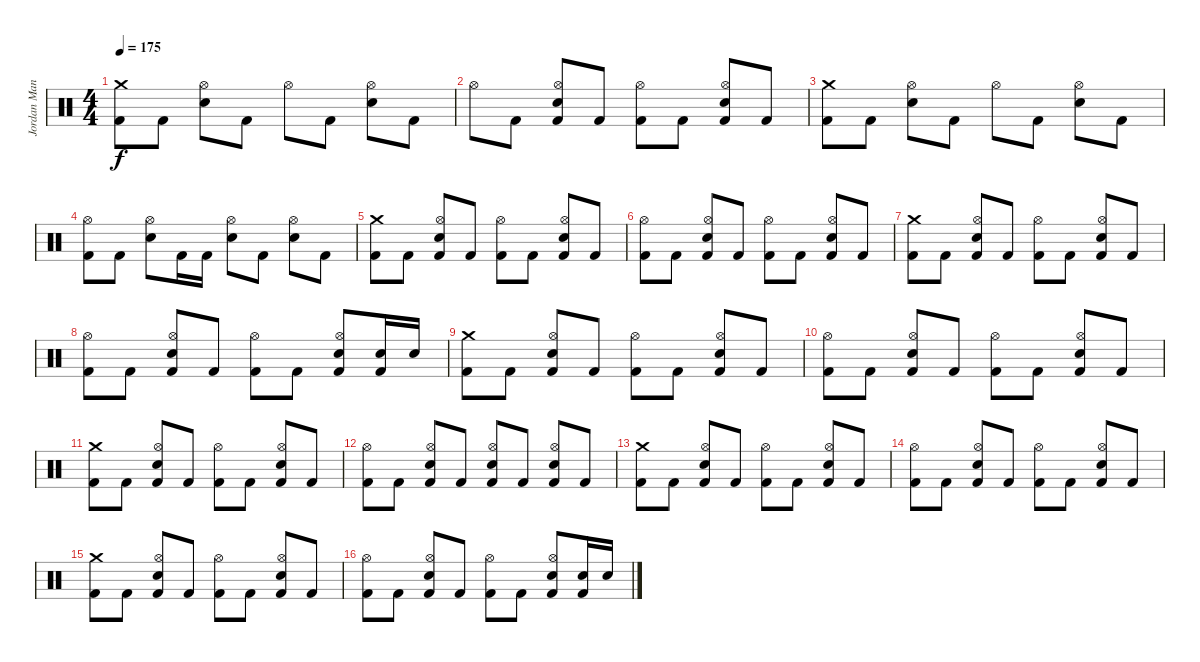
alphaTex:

\track ("Jordan Mancino" "Jordan Man") {instrument percussion}
\staff {score}
\articulation defaults
\ts (4 4)
\tempo 175
\clef neutral
\ks c
("Crash medium (hit)" "Kick (hit) 2").8{dy f} "Kick (hit) 2".8 ("Hi-Hat (open)" "Electric Snare (hit)").8 "Kick (hit) 2".8 "Hi-Hat (open)".8 "Kick (hit) 2".8 ("Hi-Hat (open)" "Electric Snare (hit)").8 "Kick (hit) 2".8 |
"Hi-Hat (open)".8 "Kick (hit) 2".8 ("Hi-Hat (open)" "Electric Snare (hit)" "Kick (hit) 2").8 "Kick (hit) 2".8 ("Hi-Hat (open)" "Kick (hit) 2").8 "Kick (hit) 2".8 ("Hi-Hat (open)" "Electric Snare (hit)" "Kick (hit) 2").8 "Kick (hit) 2".8 |
("Crash medium (hit)" "Kick (hit) 2").8 "Kick (hit) 2".8 ("Hi-Hat (open)" "Electric Snare (hit)").8 "Kick (hit) 2".8 "Hi-Hat (open)".8 "Kick (hit) 2".8 ("Hi-Hat (open)" "Electric Snare (hit)").8 "Kick (hit) 2".8 |
("Hi-Hat (open)" "Kick (hit) 2").8 "Kick (hit) 2".8 ("Hi-Hat (open)" "Electric Snare (hit)").8 "Kick (hit) 2".16 "Kick (hit) 2".16 ("Hi-Hat (open)" "Electric Snare (hit)").8 "Kick (hit) 2".8 ("Hi-Hat (open)" "Electric Snare (hit)").8 "Kick (hit) 2".8 |
("Crash medium (hit)" "Kick (hit) 2").8 "Kick (hit) 2".8 ("Hi-Hat (open)" "Electric Snare (hit)" "Kick (hit) 2").8 "Kick (hit) 2".8 ("Hi-Hat (open)" "Kick (hit) 2").8 "Kick (hit) 2".8 ("Hi-Hat (open)" "Electric Snare (hit)" "Kick (hit) 2").8 "Kick (hit) 2".8 |
("Hi-Hat (open)" "Kick (hit) 2").8 "Kick (hit) 2".8 ("Hi-Hat (open)" "Electric Snare (hit)" "Kick (hit) 2").8 "Kick (hit) 2".8 ("Hi-Hat (open)" "Kick (hit) 2").8 "Kick (hit) 2".8 ("Hi-Hat (open)" "Electric Snare (hit)" "Kick (hit) 2").8 "Kick (hit) 2".8 |
("Crash medium (hit)" "Kick (hit) 2").8 "Kick (hit) 2".8 ("Hi-Hat (open)" "Electric Snare (hit)" "Kick (hit) 2").8 "Kick (hit) 2".8 ("Hi-Hat (open)" "Kick (hit) 2").8 "Kick (hit) 2".8 ("Hi-Hat (open)" "Electric Snare (hit)" "Kick (hit) 2").8 "Kick (hit) 2".8 |
("Hi-Hat (open)" "Kick (hit) 2").8 "Kick (hit) 2".8 ("Hi-Hat (open)" "Electric Snare (hit)" "Kick (hit) 2").8 "Kick (hit) 2".8 ("Hi-Hat (open)" "Kick (hit) 2").8 "Kick (hit) 2".8 ("Hi-Hat (open)" "Electric Snare (hit)" "Kick (hit) 2").8 ("Electric Snare (hit)" "Kick (hit) 2").16 "Electric Snare (hit)".16 |
("Crash medium (hit)" "Kick (hit) 2").8 "Kick (hit) 2".8 ("Hi-Hat (open)" "Electric Snare (hit)" "Kick (hit) 2").8 "Kick (hit) 2".8 ("Hi-Hat (open)" "Kick (hit) 2").8 "Kick (hit) 2".8 ("Hi-Hat (open)" "Electric Snare (hit)" "Kick (hit) 2").8 "Kick (hit) 2".8 |
("Hi-Hat (open)" "Kick (hit) 2").8 "Kick (hit) 2".8 ("Hi-Hat (open)" "Electric Snare (hit)" "Kick (hit) 2").8 "Kick (hit) 2".8 ("Hi-Hat (open)" "Kick (hit) 2").8 "Kick (hit) 2".8 ("Hi-Hat (open)" "Electric Snare (hit)" "Kick (hit) 2").8 "Kick (hit) 2".8 |
("Crash medium (hit)" "Kick (hit) 2").8 "Kick (hit) 2".8 ("Hi-Hat (open)" "Electric Snare (hit)" "Kick (hit) 2").8 "Kick (hit) 2".8 ("Hi-Hat (open)" "Kick (hit) 2").8 "Kick (hit) 2".8 ("Hi-Hat (open)" "Electric Snare (hit)" "Kick (hit) 2").8 "Kick (hit) 2".8 |
("Hi-Hat (open)" "Kick (hit) 2").8 "Kick (hit) 2".8 ("Hi-Hat (open)" "Electric Snare (hit)" "Kick (hit) 2").8 "Kick (hit) 2".8 ("Hi-Hat (open)" "Electric Snare (hit)" "Kick (hit) 2").8 "Kick (hit) 2".8 ("Hi-Hat (open)" "Electric Snare (hit)" "Kick (hit) 2").8 "Kick (hit) 2".8 |
("Crash medium (hit)" "Kick (hit) 2").8 "Kick (hit) 2".8 ("Hi-Hat (open)" "Electric Snare (hit)" "Kick (hit) 2").8 "Kick (hit) 2".8 ("Hi-Hat (open)" "Kick (hit) 2").8 "Kick (hit) 2".8 ("Hi-Hat (open)" "Electric Snare (hit)" "Kick (hit) 2").8 "Kick (hit) 2".8 |
("Hi-Hat (open)" "Kick (hit) 2").8 "Kick (hit) 2".8 ("Hi-Hat (open)" "Electric Snare (hit)" "Kick (hit) 2").8 "Kick (hit) 2".8 ("Hi-Hat (open)" "Kick (hit) 2").8 "Kick (hit) 2".8 ("Hi-Hat (open)" "Electric Snare (hit)" "Kick (hit) 2").8 "Kick (hit) 2".8 |
("Crash medium (hit)" "Kick (hit) 2").8 "Kick (hit) 2".8 ("Hi-Hat (open)" "Electric Snare (hit)" "Kick (hit) 2").8 "Kick (hit) 2".8 ("Hi-Hat (open)" "Kick (hit) 2").8 "Kick (hit) 2".8 ("Hi-Hat (open)" "Electric Snare (hit)" "Kick (hit) 2").8 "Kick (hit) 2".8 |
("Hi-Hat (open)" "Kick (hit) 2").8 "Kick (hit) 2".8 ("Hi-Hat (open)" "Electric Snare (hit)" "Kick (hit) 2").8 "Kick (hit) 2".8 ("Hi-Hat (open)" "Kick (hit) 2").8 "Kick (hit) 2".8 ("Hi-Hat (open)" "Electric Snare (hit)" "Kick (hit) 2").8 ("Electric Snare (hit)" "Kick (hit) 2").16 "Electric Snare (hit)".16
